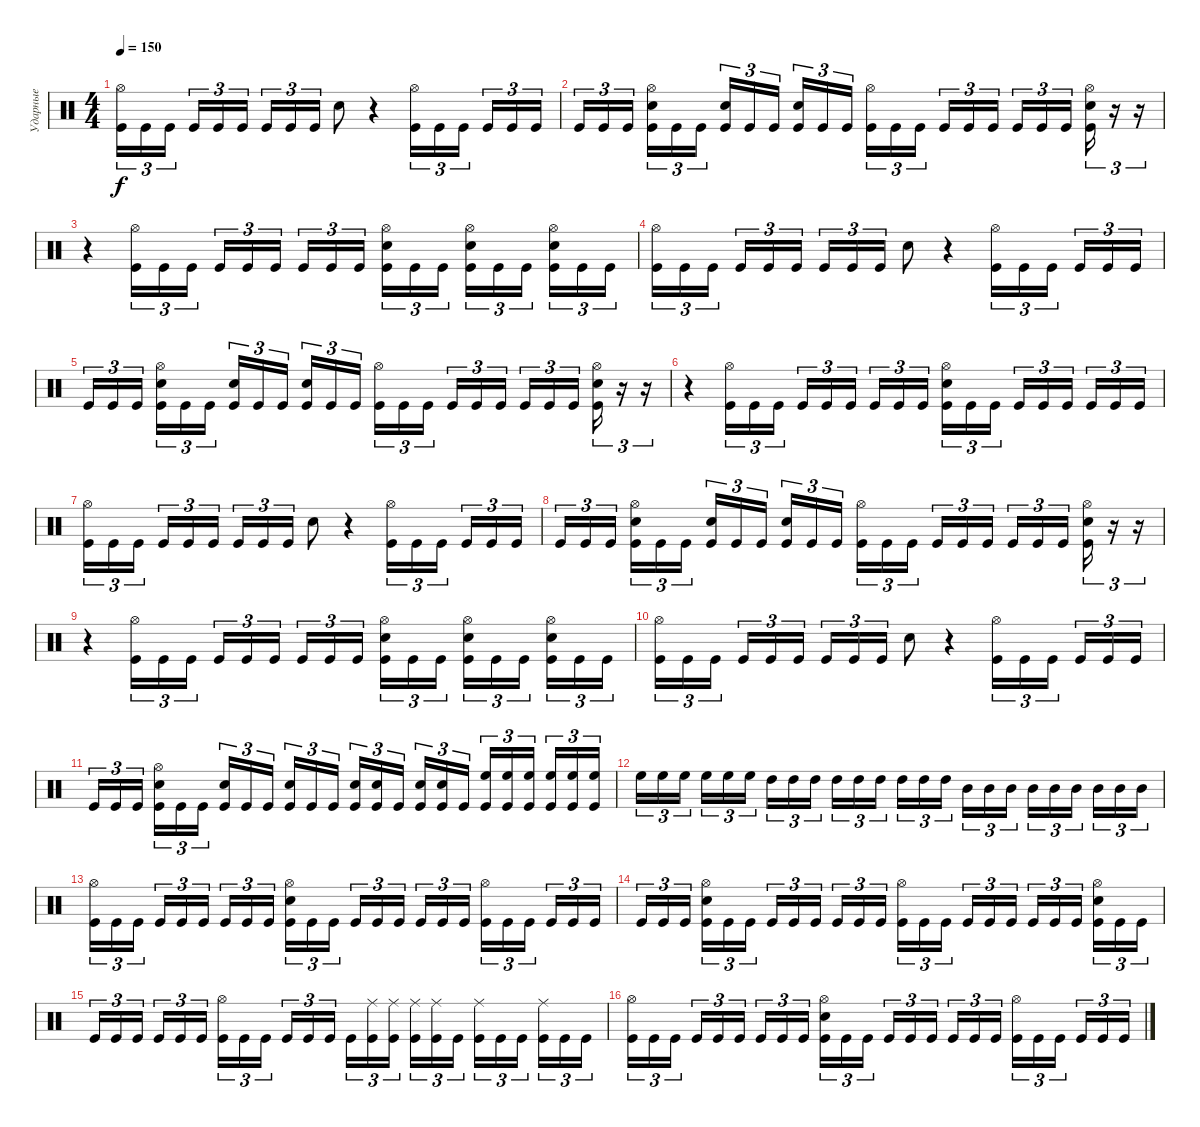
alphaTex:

\track ("Ударные" "Ударные") {instrument percussion}
\staff {score}
\articulation defaults
\ts (4 4)
\tempo 150
\clef neutral
\ks c
("Hi-Hat (open)" "Kick (hit)").16{tu (3 2) dy f} "Kick (hit)".16{tu (3 2)} "Kick (hit)".16{tu (3 2) beam splitsecondary} "Kick (hit)".16{tu (3 2)} "Kick (hit)".16{tu (3 2)} "Kick (hit)".16{tu (3 2)} "Kick (hit)".16{tu (3 2)} "Kick (hit)".16{tu (3 2)} "Kick (hit)".16{tu (3 2)} "Snare (hit) 2".8 r.4 ("Hi-Hat (open)" "Kick (hit)").16{tu (3 2)} "Kick (hit)".16{tu (3 2)} "Kick (hit)".16{tu (3 2) beam splitsecondary} "Kick (hit)".16{tu (3 2)} "Kick (hit)".16{tu (3 2)} "Kick (hit)".16{tu (3 2)} |
"Kick (hit)".16{tu (3 2)} "Kick (hit)".16{tu (3 2)} "Kick (hit)".16{tu (3 2) beam splitsecondary} ("Hi-Hat (open)" "Snare (hit) 2" "Kick (hit)").16{tu (3 2)} "Kick (hit)".16{tu (3 2)} "Kick (hit)".16{tu (3 2)} ("Snare (hit) 2" "Kick (hit)").16{tu (3 2)} "Kick (hit)".16{tu (3 2)} "Kick (hit)".16{tu (3 2) beam splitsecondary} ("Snare (hit) 2" "Kick (hit)").16{tu (3 2)} "Kick (hit)".16{tu (3 2)} "Kick (hit)".16{tu (3 2)} ("Hi-Hat (open)" "Kick (hit)").16{tu (3 2)} "Kick (hit)".16{tu (3 2)} "Kick (hit)".16{tu (3 2) beam splitsecondary} "Kick (hit)".16{tu (3 2)} "Kick (hit)".16{tu (3 2)} "Kick (hit)".16{tu (3 2)} "Kick (hit)".16{tu (3 2)} "Kick (hit)".16{tu (3 2)} "Kick (hit)".16{tu (3 2) beam splitsecondary} ("Snare (hit) 2" "Hi-Hat (open)" "Kick (hit)").16{tu (3 2)} r.16{tu (3 2)} r.16{tu (3 2)} |
r.4 ("Hi-Hat (open)" "Kick (hit)").16{tu (3 2)} "Kick (hit)".16{tu (3 2)} "Kick (hit)".16{tu (3 2) beam splitsecondary} "Kick (hit)".16{tu (3 2)} "Kick (hit)".16{tu (3 2)} "Kick (hit)".16{tu (3 2)} "Kick (hit)".16{tu (3 2)} "Kick (hit)".16{tu (3 2)} "Kick (hit)".16{tu (3 2) beam splitsecondary} ("Snare (hit) 2" "Hi-Hat (open)" "Kick (hit)").16{tu (3 2)} "Kick (hit)".16{tu (3 2)} "Kick (hit)".16{tu (3 2)} ("Snare (hit) 2" "Hi-Hat (open)" "Kick (hit)").16{tu (3 2)} "Kick (hit)".16{tu (3 2)} "Kick (hit)".16{tu (3 2) beam splitsecondary} ("Snare (hit) 2" "Hi-Hat (open)" "Kick (hit)").16{tu (3 2)} "Kick (hit)".16{tu (3 2)} "Kick (hit)".16{tu (3 2)} |
("Hi-Hat (open)" "Kick (hit)").16{tu (3 2)} "Kick (hit)".16{tu (3 2)} "Kick (hit)".16{tu (3 2) beam splitsecondary} "Kick (hit)".16{tu (3 2)} "Kick (hit)".16{tu (3 2)} "Kick (hit)".16{tu (3 2)} "Kick (hit)".16{tu (3 2)} "Kick (hit)".16{tu (3 2)} "Kick (hit)".16{tu (3 2)} "Snare (hit) 2".8 r.4 ("Hi-Hat (open)" "Kick (hit)").16{tu (3 2)} "Kick (hit)".16{tu (3 2)} "Kick (hit)".16{tu (3 2) beam splitsecondary} "Kick (hit)".16{tu (3 2)} "Kick (hit)".16{tu (3 2)} "Kick (hit)".16{tu (3 2)} |
"Kick (hit)".16{tu (3 2)} "Kick (hit)".16{tu (3 2)} "Kick (hit)".16{tu (3 2) beam splitsecondary} ("Hi-Hat (open)" "Snare (hit) 2" "Kick (hit)").16{tu (3 2)} "Kick (hit)".16{tu (3 2)} "Kick (hit)".16{tu (3 2)} ("Snare (hit) 2" "Kick (hit)").16{tu (3 2)} "Kick (hit)".16{tu (3 2)} "Kick (hit)".16{tu (3 2) beam splitsecondary} ("Snare (hit) 2" "Kick (hit)").16{tu (3 2)} "Kick (hit)".16{tu (3 2)} "Kick (hit)".16{tu (3 2)} ("Hi-Hat (open)" "Kick (hit)").16{tu (3 2)} "Kick (hit)".16{tu (3 2)} "Kick (hit)".16{tu (3 2) beam splitsecondary} "Kick (hit)".16{tu (3 2)} "Kick (hit)".16{tu (3 2)} "Kick (hit)".16{tu (3 2)} "Kick (hit)".16{tu (3 2)} "Kick (hit)".16{tu (3 2)} "Kick (hit)".16{tu (3 2) beam splitsecondary} ("Snare (hit) 2" "Hi-Hat (open)" "Kick (hit)").16{tu (3 2)} r.16{tu (3 2)} r.16{tu (3 2)} |
r.4 ("Hi-Hat (open)" "Kick (hit)").16{tu (3 2)} "Kick (hit)".16{tu (3 2)} "Kick (hit)".16{tu (3 2) beam splitsecondary} "Kick (hit)".16{tu (3 2)} "Kick (hit)".16{tu (3 2)} "Kick (hit)".16{tu (3 2)} "Kick (hit)".16{tu (3 2)} "Kick (hit)".16{tu (3 2)} "Kick (hit)".16{tu (3 2) beam splitsecondary} ("Snare (hit) 2" "Hi-Hat (open)" "Kick (hit)").16{tu (3 2)} "Kick (hit)".16{tu (3 2)} "Kick (hit)".16{tu (3 2)} "Kick (hit)".16{tu (3 2)} "Kick (hit)".16{tu (3 2)} "Kick (hit)".16{tu (3 2) beam splitsecondary} "Kick (hit)".16{tu (3 2)} "Kick (hit)".16{tu (3 2)} "Kick (hit)".16{tu (3 2)} |
("Hi-Hat (open)" "Kick (hit)").16{tu (3 2)} "Kick (hit)".16{tu (3 2)} "Kick (hit)".16{tu (3 2) beam splitsecondary} "Kick (hit)".16{tu (3 2)} "Kick (hit)".16{tu (3 2)} "Kick (hit)".16{tu (3 2)} "Kick (hit)".16{tu (3 2)} "Kick (hit)".16{tu (3 2)} "Kick (hit)".16{tu (3 2)} "Snare (hit) 2".8 r.4 ("Hi-Hat (open)" "Kick (hit)").16{tu (3 2)} "Kick (hit)".16{tu (3 2)} "Kick (hit)".16{tu (3 2) beam splitsecondary} "Kick (hit)".16{tu (3 2)} "Kick (hit)".16{tu (3 2)} "Kick (hit)".16{tu (3 2)} |
"Kick (hit)".16{tu (3 2)} "Kick (hit)".16{tu (3 2)} "Kick (hit)".16{tu (3 2) beam splitsecondary} ("Hi-Hat (open)" "Snare (hit) 2" "Kick (hit)").16{tu (3 2)} "Kick (hit)".16{tu (3 2)} "Kick (hit)".16{tu (3 2)} ("Snare (hit) 2" "Kick (hit)").16{tu (3 2)} "Kick (hit)".16{tu (3 2)} "Kick (hit)".16{tu (3 2) beam splitsecondary} ("Snare (hit) 2" "Kick (hit)").16{tu (3 2)} "Kick (hit)".16{tu (3 2)} "Kick (hit)".16{tu (3 2)} ("Hi-Hat (open)" "Kick (hit)").16{tu (3 2)} "Kick (hit)".16{tu (3 2)} "Kick (hit)".16{tu (3 2) beam splitsecondary} "Kick (hit)".16{tu (3 2)} "Kick (hit)".16{tu (3 2)} "Kick (hit)".16{tu (3 2)} "Kick (hit)".16{tu (3 2)} "Kick (hit)".16{tu (3 2)} "Kick (hit)".16{tu (3 2) beam splitsecondary} ("Snare (hit) 2" "Hi-Hat (open)" "Kick (hit)").16{tu (3 2)} r.16{tu (3 2)} r.16{tu (3 2)} |
r.4 ("Hi-Hat (open)" "Kick (hit)").16{tu (3 2)} "Kick (hit)".16{tu (3 2)} "Kick (hit)".16{tu (3 2) beam splitsecondary} "Kick (hit)".16{tu (3 2)} "Kick (hit)".16{tu (3 2)} "Kick (hit)".16{tu (3 2)} "Kick (hit)".16{tu (3 2)} "Kick (hit)".16{tu (3 2)} "Kick (hit)".16{tu (3 2) beam splitsecondary} ("Snare (hit) 2" "Hi-Hat (open)" "Kick (hit)").16{tu (3 2)} "Kick (hit)".16{tu (3 2)} "Kick (hit)".16{tu (3 2)} ("Snare (hit) 2" "Hi-Hat (open)" "Kick (hit)").16{tu (3 2)} "Kick (hit)".16{tu (3 2)} "Kick (hit)".16{tu (3 2) beam splitsecondary} ("Snare (hit) 2" "Hi-Hat (open)" "Kick (hit)").16{tu (3 2)} "Kick (hit)".16{tu (3 2)} "Kick (hit)".16{tu (3 2)} |
("Hi-Hat (open)" "Kick (hit)").16{tu (3 2)} "Kick (hit)".16{tu (3 2)} "Kick (hit)".16{tu (3 2) beam splitsecondary} "Kick (hit)".16{tu (3 2)} "Kick (hit)".16{tu (3 2)} "Kick (hit)".16{tu (3 2)} "Kick (hit)".16{tu (3 2)} "Kick (hit)".16{tu (3 2)} "Kick (hit)".16{tu (3 2)} "Snare (hit) 2".8 r.4 ("Hi-Hat (open)" "Kick (hit)").16{tu (3 2)} "Kick (hit)".16{tu (3 2)} "Kick (hit)".16{tu (3 2) beam splitsecondary} "Kick (hit)".16{tu (3 2)} "Kick (hit)".16{tu (3 2)} "Kick (hit)".16{tu (3 2)} |
"Kick (hit)".16{tu (3 2)} "Kick (hit)".16{tu (3 2)} "Kick (hit)".16{tu (3 2) beam splitsecondary} ("Hi-Hat (open)" "Snare (hit) 2" "Kick (hit)").16{tu (3 2)} "Kick (hit)".16{tu (3 2)} "Kick (hit)".16{tu (3 2)} ("Snare (hit) 2" "Kick (hit)").16{tu (3 2)} "Kick (hit)".16{tu (3 2)} "Kick (hit)".16{tu (3 2) beam splitsecondary} ("Snare (hit) 2" "Kick (hit)").16{tu (3 2)} "Kick (hit)".16{tu (3 2)} "Kick (hit)".16{tu (3 2)} ("Snare (hit) 2" "Kick (hit)").16{tu (3 2)} ("Snare (hit) 2" "Kick (hit)").16{tu (3 2)} "Kick (hit)".16{tu (3 2) beam splitsecondary} ("Snare (hit) 2" "Kick (hit)").16{tu (3 2)} ("Snare (hit) 2" "Kick (hit)").16{tu (3 2)} "Kick (hit)".16{tu (3 2)} ("High Floor Tom (hit)" "Kick (hit)").16{tu (3 2)} ("High Floor Tom (hit)" "Kick (hit)").16{tu (3 2)} ("High Floor Tom (hit)" "Kick (hit)").16{tu (3 2) beam splitsecondary} ("High Floor Tom (hit)" "Kick (hit)").16{tu (3 2)} ("High Floor Tom (hit)" "Kick (hit)").16{tu (3 2)} ("High Floor Tom (hit)" "Kick (hit)").16{tu (3 2)} |
"High Floor Tom (hit)".16{tu (3 2)} "High Floor Tom (hit)".16{tu (3 2)} "High Floor Tom (hit)".16{tu (3 2) beam splitsecondary} "High Floor Tom (hit)".16{tu (3 2)} "High Floor Tom (hit)".16{tu (3 2)} "High Floor Tom (hit)".16{tu (3 2)} "High Tom (hit)".16{tu (3 2)} "High Tom (hit)".16{tu (3 2)} "High Tom (hit)".16{tu (3 2) beam splitsecondary} "High Tom (hit)".16{tu (3 2)} "High Tom (hit)".16{tu (3 2)} "High Tom (hit)".16{tu (3 2)} "High Tom (hit)".16{tu (3 2)} "High Tom (hit)".16{tu (3 2)} "High Tom (hit)".16{tu (3 2) beam splitsecondary} "Mid Tom (hit)".16{tu (3 2)} "Mid Tom (hit)".16{tu (3 2)} "Mid Tom (hit)".16{tu (3 2)} "Mid Tom (hit)".16{tu (3 2)} "Mid Tom (hit)".16{tu (3 2)} "Mid Tom (hit)".16{tu (3 2) beam splitsecondary} "Mid Tom (hit)".16{tu (3 2)} "Mid Tom (hit)".16{tu (3 2)} "Mid Tom (hit)".16{tu (3 2)} |
("Hi-Hat (open)" "Kick (hit)").16{tu (3 2)} "Kick (hit)".16{tu (3 2)} "Kick (hit)".16{tu (3 2) beam splitsecondary} "Kick (hit)".16{tu (3 2)} "Kick (hit)".16{tu (3 2)} "Kick (hit)".16{tu (3 2)} "Kick (hit)".16{tu (3 2)} "Kick (hit)".16{tu (3 2)} "Kick (hit)".16{tu (3 2) beam splitsecondary} ("Snare (hit) 2" "Hi-Hat (open)" "Kick (hit)").16{tu (3 2)} "Kick (hit)".16{tu (3 2)} "Kick (hit)".16{tu (3 2)} "Kick (hit)".16{tu (3 2)} "Kick (hit)".16{tu (3 2)} "Kick (hit)".16{tu (3 2) beam splitsecondary} "Kick (hit)".16{tu (3 2)} "Kick (hit)".16{tu (3 2)} "Kick (hit)".16{tu (3 2)} ("Hi-Hat (open)" "Kick (hit)").16{tu (3 2)} "Kick (hit)".16{tu (3 2)} "Kick (hit)".16{tu (3 2) beam splitsecondary} "Kick (hit)".16{tu (3 2)} "Kick (hit)".16{tu (3 2)} "Kick (hit)".16{tu (3 2)} |
"Kick (hit)".16{tu (3 2)} "Kick (hit)".16{tu (3 2)} "Kick (hit)".16{tu (3 2) beam splitsecondary} ("Snare (hit) 2" "Hi-Hat (open)" "Kick (hit)").16{tu (3 2)} "Kick (hit)".16{tu (3 2)} "Kick (hit)".16{tu (3 2)} "Kick (hit)".16{tu (3 2)} "Kick (hit)".16{tu (3 2)} "Kick (hit)".16{tu (3 2) beam splitsecondary} "Kick (hit)".16{tu (3 2)} "Kick (hit)".16{tu (3 2)} "Kick (hit)".16{tu (3 2)} ("Hi-Hat (open)" "Kick (hit)").16{tu (3 2)} "Kick (hit)".16{tu (3 2)} "Kick (hit)".16{tu (3 2) beam splitsecondary} "Kick (hit)".16{tu (3 2)} "Kick (hit)".16{tu (3 2)} "Kick (hit)".16{tu (3 2)} "Kick (hit)".16{tu (3 2)} "Kick (hit)".16{tu (3 2)} "Kick (hit)".16{tu (3 2) beam splitsecondary} ("Snare (hit) 2" "Hi-Hat (open)" "Kick (hit)").16{tu (3 2)} "Kick (hit)".16{tu (3 2)} "Kick (hit)".16{tu (3 2)} |
"Kick (hit)".16{tu (3 2)} "Kick (hit)".16{tu (3 2)} "Kick (hit)".16{tu (3 2) beam splitsecondary} "Kick (hit)".16{tu (3 2)} "Kick (hit)".16{tu (3 2)} "Kick (hit)".16{tu (3 2)} ("Hi-Hat (open)" "Kick (hit)").16{tu (3 2)} "Kick (hit)".16{tu (3 2)} "Kick (hit)".16{tu (3 2) beam splitsecondary} "Kick (hit)".16{tu (3 2)} "Kick (hit)".16{tu (3 2)} "Kick (hit)".16{tu (3 2)} "Kick (hit)".16{tu (3 2)} ("Ride (middle)" "Kick (hit)").16{tu (3 2)} ("Ride (middle)" "Kick (hit)").16{tu (3 2) beam splitsecondary} ("Ride (middle)" "Kick (hit)").16{tu (3 2)} ("Ride (middle)" "Kick (hit)").16{tu (3 2)} "Kick (hit)".16{tu (3 2)} ("Ride (middle)" "Kick (hit)").16{tu (3 2)} "Kick (hit)".16{tu (3 2)} "Kick (hit)".16{tu (3 2) beam splitsecondary} ("Ride (middle)" "Kick (hit)").16{tu (3 2)} "Kick (hit)".16{tu (3 2)} "Kick (hit)".16{tu (3 2)} |
("Hi-Hat (open)" "Kick (hit)").16{tu (3 2)} "Kick (hit)".16{tu (3 2)} "Kick (hit)".16{tu (3 2) beam splitsecondary} "Kick (hit)".16{tu (3 2)} "Kick (hit)".16{tu (3 2)} "Kick (hit)".16{tu (3 2)} "Kick (hit)".16{tu (3 2)} "Kick (hit)".16{tu (3 2)} "Kick (hit)".16{tu (3 2) beam splitsecondary} ("Snare (hit) 2" "Hi-Hat (open)" "Kick (hit)").16{tu (3 2)} "Kick (hit)".16{tu (3 2)} "Kick (hit)".16{tu (3 2)} "Kick (hit)".16{tu (3 2)} "Kick (hit)".16{tu (3 2)} "Kick (hit)".16{tu (3 2) beam splitsecondary} "Kick (hit)".16{tu (3 2)} "Kick (hit)".16{tu (3 2)} "Kick (hit)".16{tu (3 2)} ("Hi-Hat (open)" "Kick (hit)").16{tu (3 2)} "Kick (hit)".16{tu (3 2)} "Kick (hit)".16{tu (3 2) beam splitsecondary} "Kick (hit)".16{tu (3 2)} "Kick (hit)".16{tu (3 2)} "Kick (hit)".16{tu (3 2)}
